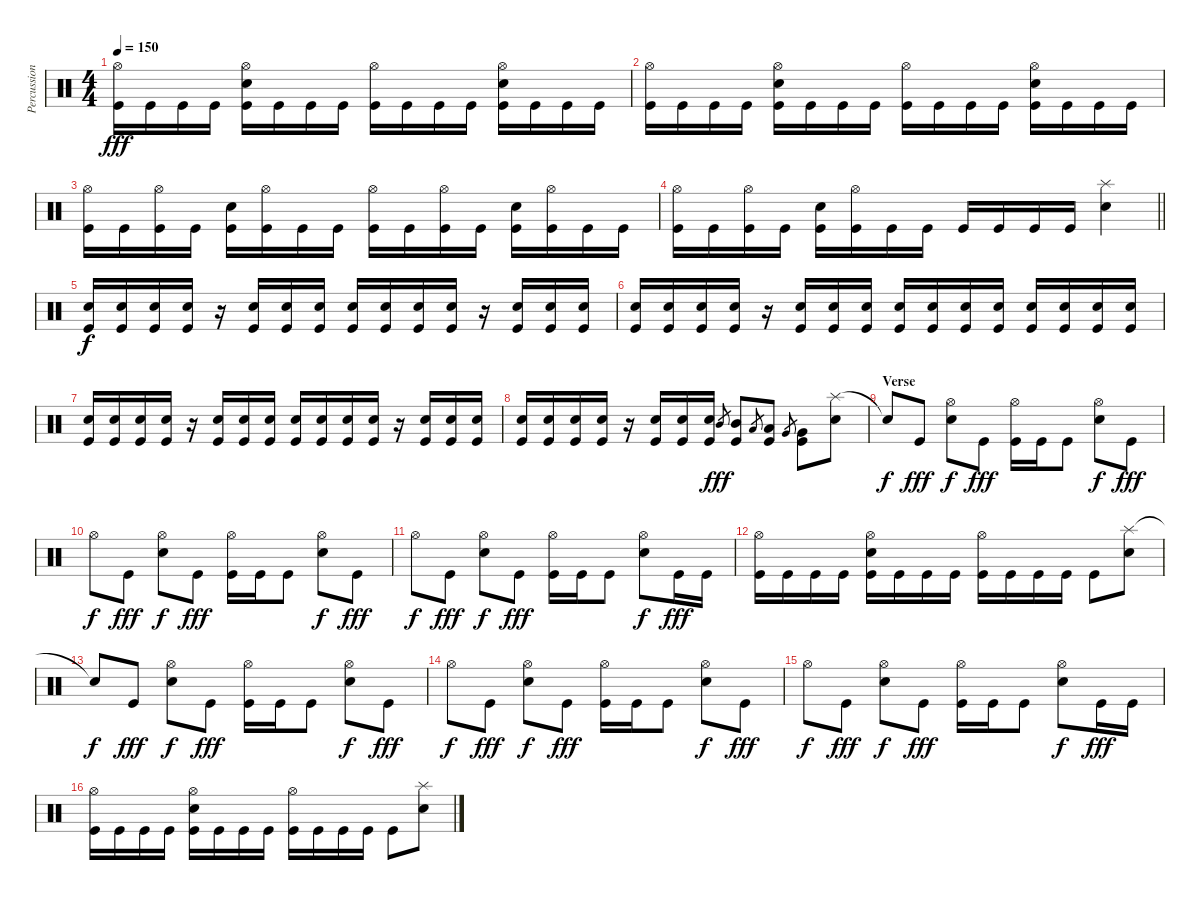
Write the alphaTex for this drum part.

\track ("Percussion" "Percussion") {instrument percussion}
\staff {score}
\articulation defaults
\ts (4 4)
\tempo 150
\clef neutral
\ks c
("Hi-Hat (open)" "Kick (hit)").16{dy fff} "Kick (hit)".16 "Kick (hit)".16 "Kick (hit)".16 ("Hi-Hat (open)" "Electric Snare (hit)" "Kick (hit)").16 "Kick (hit)".16 "Kick (hit)".16 "Kick (hit)".16 ("Hi-Hat (open)" "Kick (hit)").16 "Kick (hit)".16 "Kick (hit)".16 "Kick (hit)".16 ("Hi-Hat (open)" "Electric Snare (hit)" "Kick (hit)").16 "Kick (hit)".16 "Kick (hit)".16 "Kick (hit)".16 |
("Hi-Hat (open)" "Kick (hit)").16 "Kick (hit)".16 "Kick (hit)".16 "Kick (hit)".16 ("Hi-Hat (open)" "Electric Snare (hit)" "Kick (hit)").16 "Kick (hit)".16 "Kick (hit)".16 "Kick (hit)".16 ("Hi-Hat (open)" "Kick (hit)").16 "Kick (hit)".16 "Kick (hit)".16 "Kick (hit)".16 ("Hi-Hat (open)" "Electric Snare (hit)" "Kick (hit)").16 "Kick (hit)".16 "Kick (hit)".16 "Kick (hit)".16 |
("Hi-Hat (open)" "Kick (hit)").16 "Kick (hit)".16 ("Hi-Hat (open)" "Kick (hit)").16 "Kick (hit)".16 ("Electric Snare (hit)" "Kick (hit)").16 ("Hi-Hat (open)" "Kick (hit)").16 "Kick (hit)".16 "Kick (hit)".16 ("Hi-Hat (open)" "Kick (hit)").16 "Kick (hit)".16 ("Hi-Hat (open)" "Kick (hit)").16 "Kick (hit)".16 ("Electric Snare (hit)" "Kick (hit)").16 ("Hi-Hat (open)" "Kick (hit)").16 "Kick (hit)".16 "Kick (hit)".16 |
\barLineRight lightlight
("Hi-Hat (open)" "Kick (hit)").16 "Kick (hit)".16 ("Hi-Hat (open)" "Kick (hit)").16 "Kick (hit)".16 ("Electric Snare (hit)" "Kick (hit)").16 ("Hi-Hat (open)" "Kick (hit)").16 "Kick (hit)".16 "Kick (hit)".16 "Kick (hit)".16 "Kick (hit)".16 "Kick (hit)".16 "Kick (hit)".16 ("Splash (hit)" "Electric Snare (hit)").4 |
("Electric Snare (hit)" "Kick (hit)").16{dy f} ("Electric Snare (hit)" "Kick (hit)").16 ("Electric Snare (hit)" "Kick (hit)").16 ("Electric Snare (hit)" "Kick (hit)").16 r.16 ("Electric Snare (hit)" "Kick (hit)").16 ("Electric Snare (hit)" "Kick (hit)").16 ("Electric Snare (hit)" "Kick (hit)").16 ("Electric Snare (hit)" "Kick (hit)").16 ("Electric Snare (hit)" "Kick (hit)").16 ("Electric Snare (hit)" "Kick (hit)").16 ("Electric Snare (hit)" "Kick (hit)").16 r.16 ("Electric Snare (hit)" "Kick (hit)").16 ("Electric Snare (hit)" "Kick (hit)").16 ("Electric Snare (hit)" "Kick (hit)").16 |
("Electric Snare (hit)" "Kick (hit)").16 ("Electric Snare (hit)" "Kick (hit)").16 ("Electric Snare (hit)" "Kick (hit)").16 ("Electric Snare (hit)" "Kick (hit)").16 r.16 ("Electric Snare (hit)" "Kick (hit)").16 ("Electric Snare (hit)" "Kick (hit)").16 ("Electric Snare (hit)" "Kick (hit)").16 ("Electric Snare (hit)" "Kick (hit)").16 ("Electric Snare (hit)" "Kick (hit)").16 ("Electric Snare (hit)" "Kick (hit)").16 ("Electric Snare (hit)" "Kick (hit)").16 ("Electric Snare (hit)" "Kick (hit)").16 ("Electric Snare (hit)" "Kick (hit)").16 ("Electric Snare (hit)" "Kick (hit)").16 ("Electric Snare (hit)" "Kick (hit)").16 |
("Electric Snare (hit)" "Kick (hit)").16 ("Electric Snare (hit)" "Kick (hit)").16 ("Electric Snare (hit)" "Kick (hit)").16 ("Electric Snare (hit)" "Kick (hit)").16 r.16 ("Electric Snare (hit)" "Kick (hit)").16 ("Electric Snare (hit)" "Kick (hit)").16 ("Electric Snare (hit)" "Kick (hit)").16 ("Electric Snare (hit)" "Kick (hit)").16 ("Electric Snare (hit)" "Kick (hit)").16 ("Electric Snare (hit)" "Kick (hit)").16 ("Electric Snare (hit)" "Kick (hit)").16 r.16 ("Electric Snare (hit)" "Kick (hit)").16 ("Electric Snare (hit)" "Kick (hit)").16 ("Electric Snare (hit)" "Kick (hit)").16 |
("Electric Snare (hit)" "Kick (hit)").16 ("Electric Snare (hit)" "Kick (hit)").16 ("Electric Snare (hit)" "Kick (hit)").16 ("Electric Snare (hit)" "Kick (hit)").16 r.16 ("Electric Snare (hit)" "Kick (hit)").16 ("Electric Snare (hit)" "Kick (hit)").16 ("Electric Snare (hit)" "Kick (hit)").16 "Mid Tom (hit)".8{gr dy fff} ("Mid Tom (hit)" "Kick (hit)").8 "Low Tom (hit)".8{gr} ("Low Tom (hit)" "Kick (hit)").8 "Very Low Tom (hit)".8{gr} ("Very Low Tom (hit)" "Kick (hit)").8 ("Splash (hit)" "Electric Snare (hit)").8 |
\section ("" "Verse")
"Snare (hit)"{t}.8{dy f} "Kick (hit)".8{dy fff} ("Hi-Hat (open)" "Electric Snare (hit)").8{dy f} "Kick (hit)".8{dy fff} ("Hi-Hat (open)" "Kick (hit)").16 "Kick (hit)".16 "Kick (hit)".8 ("Hi-Hat (open)" "Electric Snare (hit)").8{dy f} "Kick (hit)".8{dy fff} |
"Hi-Hat (open)".8{dy f} "Kick (hit)".8{dy fff} ("Hi-Hat (open)" "Electric Snare (hit)").8{dy f} "Kick (hit)".8{dy fff} ("Hi-Hat (open)" "Kick (hit)").16 "Kick (hit)".16 "Kick (hit)".8 ("Hi-Hat (open)" "Electric Snare (hit)").8{dy f} "Kick (hit)".8{dy fff} |
"Hi-Hat (open)".8{dy f} "Kick (hit)".8{dy fff} ("Hi-Hat (open)" "Electric Snare (hit)").8{dy f} "Kick (hit)".8{dy fff} ("Hi-Hat (open)" "Kick (hit)").16 "Kick (hit)".16 "Kick (hit)".8 ("Hi-Hat (open)" "Electric Snare (hit)").8{dy f} "Kick (hit)".16{dy fff} "Kick (hit)".16 |
("Hi-Hat (open)" "Kick (hit)").16 "Kick (hit)".16 "Kick (hit)".16 "Kick (hit)".16 ("Hi-Hat (open)" "Electric Snare (hit)" "Kick (hit)").16 "Kick (hit)".16 "Kick (hit)".16 "Kick (hit)".16 ("Hi-Hat (open)" "Kick (hit)").16 "Kick (hit)".16 "Kick (hit)".16 "Kick (hit)".16 "Kick (hit)".8 ("Splash (hit)" "Electric Snare (hit)").8 |
"Snare (hit)"{t}.8{dy f} "Kick (hit)".8{dy fff} ("Hi-Hat (open)" "Electric Snare (hit)").8{dy f} "Kick (hit)".8{dy fff} ("Hi-Hat (open)" "Kick (hit)").16 "Kick (hit)".16 "Kick (hit)".8 ("Hi-Hat (open)" "Electric Snare (hit)").8{dy f} "Kick (hit)".8{dy fff} |
"Hi-Hat (open)".8{dy f} "Kick (hit)".8{dy fff} ("Hi-Hat (open)" "Electric Snare (hit)").8{dy f} "Kick (hit)".8{dy fff} ("Hi-Hat (open)" "Kick (hit)").16 "Kick (hit)".16 "Kick (hit)".8 ("Hi-Hat (open)" "Electric Snare (hit)").8{dy f} "Kick (hit)".8{dy fff} |
"Hi-Hat (open)".8{dy f} "Kick (hit)".8{dy fff} ("Hi-Hat (open)" "Electric Snare (hit)").8{dy f} "Kick (hit)".8{dy fff} ("Hi-Hat (open)" "Kick (hit)").16 "Kick (hit)".16 "Kick (hit)".8 ("Hi-Hat (open)" "Electric Snare (hit)").8{dy f} "Kick (hit)".16{dy fff} "Kick (hit)".16 |
("Hi-Hat (open)" "Kick (hit)").16 "Kick (hit)".16 "Kick (hit)".16 "Kick (hit)".16 ("Hi-Hat (open)" "Electric Snare (hit)" "Kick (hit)").16 "Kick (hit)".16 "Kick (hit)".16 "Kick (hit)".16 ("Hi-Hat (open)" "Kick (hit)").16 "Kick (hit)".16 "Kick (hit)".16 "Kick (hit)".16 "Kick (hit)".8 ("Splash (hit)" "Electric Snare (hit)").8
